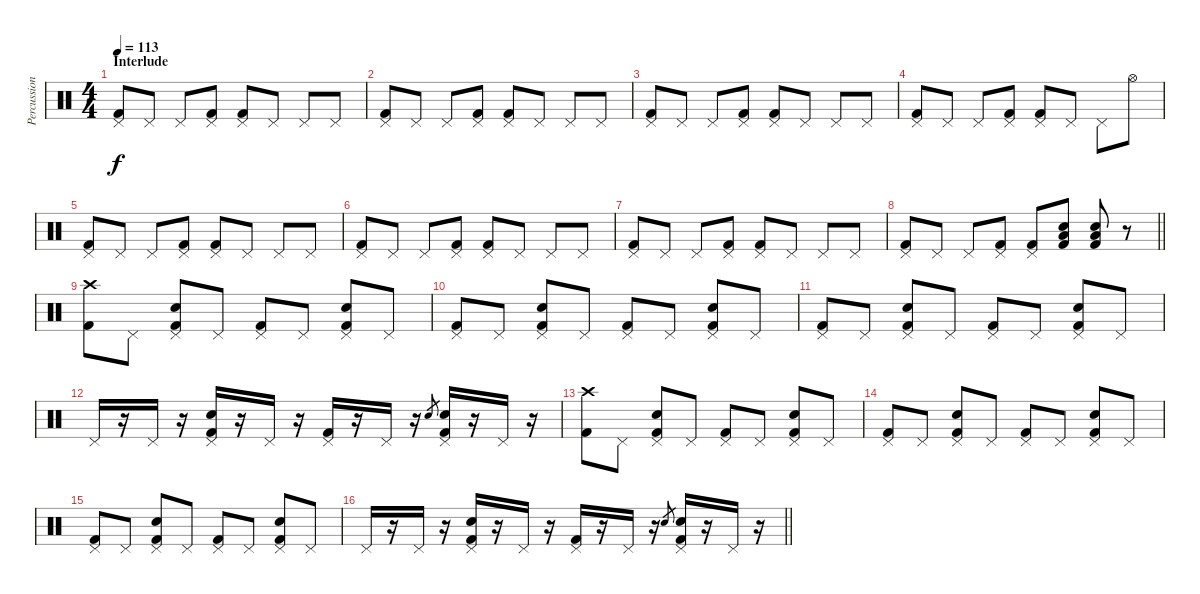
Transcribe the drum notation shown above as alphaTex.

\track ("Percussions" "Percussion") {instrument percussion}
\staff {score}
\articulation defaults
\ts (4 4)
\section ("" "Interlude")
\tempo 113
\clef neutral
\ks c
("Pedal Hi-Hat (hit)" "Kick (hit) 2").8{dy f} "Pedal Hi-Hat (hit)".8 "Pedal Hi-Hat (hit)".8 ("Pedal Hi-Hat (hit)" "Kick (hit) 2").8 ("Pedal Hi-Hat (hit)" "Kick (hit) 2").8 "Pedal Hi-Hat (hit)".8 "Pedal Hi-Hat (hit)".8 "Pedal Hi-Hat (hit)".8 |
("Pedal Hi-Hat (hit)" "Kick (hit) 2").8 "Pedal Hi-Hat (hit)".8 "Pedal Hi-Hat (hit)".8 ("Pedal Hi-Hat (hit)" "Kick (hit) 2").8 ("Pedal Hi-Hat (hit)" "Kick (hit) 2").8 "Pedal Hi-Hat (hit)".8 "Pedal Hi-Hat (hit)".8 "Pedal Hi-Hat (hit)".8 |
("Pedal Hi-Hat (hit)" "Kick (hit) 2").8 "Pedal Hi-Hat (hit)".8 "Pedal Hi-Hat (hit)".8 ("Pedal Hi-Hat (hit)" "Kick (hit) 2").8 ("Pedal Hi-Hat (hit)" "Kick (hit) 2").8 "Pedal Hi-Hat (hit)".8 "Pedal Hi-Hat (hit)".8 "Pedal Hi-Hat (hit)".8 |
("Pedal Hi-Hat (hit)" "Kick (hit) 2").8 "Pedal Hi-Hat (hit)".8 "Pedal Hi-Hat (hit)".8 ("Pedal Hi-Hat (hit)" "Kick (hit) 2").8 ("Pedal Hi-Hat (hit)" "Kick (hit) 2").8 "Pedal Hi-Hat (hit)".8 "Pedal Hi-Hat (hit)".8 "Hi-Hat (open)".8 |
("Pedal Hi-Hat (hit)" "Kick (hit) 2").8 "Pedal Hi-Hat (hit)".8 "Pedal Hi-Hat (hit)".8 ("Pedal Hi-Hat (hit)" "Kick (hit) 2").8 ("Pedal Hi-Hat (hit)" "Kick (hit) 2").8 "Pedal Hi-Hat (hit)".8 "Pedal Hi-Hat (hit)".8 "Pedal Hi-Hat (hit)".8 |
("Pedal Hi-Hat (hit)" "Kick (hit) 2").8 "Pedal Hi-Hat (hit)".8 "Pedal Hi-Hat (hit)".8 ("Pedal Hi-Hat (hit)" "Kick (hit) 2").8 ("Pedal Hi-Hat (hit)" "Kick (hit) 2").8 "Pedal Hi-Hat (hit)".8 "Pedal Hi-Hat (hit)".8 "Pedal Hi-Hat (hit)".8 |
("Pedal Hi-Hat (hit)" "Kick (hit) 2").8 "Pedal Hi-Hat (hit)".8 "Pedal Hi-Hat (hit)".8 ("Pedal Hi-Hat (hit)" "Kick (hit) 2").8 ("Pedal Hi-Hat (hit)" "Kick (hit) 2").8 "Pedal Hi-Hat (hit)".8 "Pedal Hi-Hat (hit)".8 "Pedal Hi-Hat (hit)".8 |
\barLineRight lightlight
("Pedal Hi-Hat (hit)" "Kick (hit) 2").8 "Pedal Hi-Hat (hit)".8 "Pedal Hi-Hat (hit)".8 ("Pedal Hi-Hat (hit)" "Kick (hit) 2").8 ("Pedal Hi-Hat (hit)" "Kick (hit) 2").8 ("Low Floor Tom (hit)" "Electric Snare (hit)" "Kick (hit) 2").8 ("Low Floor Tom (hit)" "Electric Snare (hit)" "Kick (hit) 2").8 r.8 |
("Crash high (hit)" "Kick (hit) 2").8 "Pedal Hi-Hat (hit)".8 ("Pedal Hi-Hat (hit)" "Electric Snare (hit)" "Kick (hit) 2").8 "Pedal Hi-Hat (hit)".8 ("Pedal Hi-Hat (hit)" "Kick (hit) 2").8 "Pedal Hi-Hat (hit)".8 ("Pedal Hi-Hat (hit)" "Electric Snare (hit)" "Kick (hit) 2").8 "Pedal Hi-Hat (hit)".8 |
("Pedal Hi-Hat (hit)" "Kick (hit) 2").8 "Pedal Hi-Hat (hit)".8 ("Pedal Hi-Hat (hit)" "Electric Snare (hit)" "Kick (hit) 2").8 "Pedal Hi-Hat (hit)".8 ("Pedal Hi-Hat (hit)" "Kick (hit) 2").8 "Pedal Hi-Hat (hit)".8 ("Pedal Hi-Hat (hit)" "Electric Snare (hit)" "Kick (hit) 2").8 "Pedal Hi-Hat (hit)".8 |
("Pedal Hi-Hat (hit)" "Kick (hit) 2").8 "Pedal Hi-Hat (hit)".8 ("Pedal Hi-Hat (hit)" "Electric Snare (hit)" "Kick (hit) 2").8 "Pedal Hi-Hat (hit)".8 ("Pedal Hi-Hat (hit)" "Kick (hit) 2").8 "Pedal Hi-Hat (hit)".8 ("Pedal Hi-Hat (hit)" "Electric Snare (hit)" "Kick (hit) 2").8 "Pedal Hi-Hat (hit)".8 |
"Pedal Hi-Hat (hit)".16 r.16 "Pedal Hi-Hat (hit)".16 r.16 ("Pedal Hi-Hat (hit)" "Electric Snare (hit)" "Kick (hit) 2").16 r.16 "Pedal Hi-Hat (hit)".16 r.16 ("Pedal Hi-Hat (hit)" "Kick (hit) 2").16 r.16 "Pedal Hi-Hat (hit)".16 r.16 "Electric Snare (hit)".8{gr} ("Pedal Hi-Hat (hit)" "Electric Snare (hit)" "Kick (hit) 2").16 r.16 "Pedal Hi-Hat (hit)".16 r.16 |
("Crash high (hit)" "Kick (hit) 2").8 "Pedal Hi-Hat (hit)".8 ("Pedal Hi-Hat (hit)" "Electric Snare (hit)" "Kick (hit) 2").8 "Pedal Hi-Hat (hit)".8 ("Pedal Hi-Hat (hit)" "Kick (hit) 2").8 "Pedal Hi-Hat (hit)".8 ("Pedal Hi-Hat (hit)" "Electric Snare (hit)" "Kick (hit) 2").8 "Pedal Hi-Hat (hit)".8 |
("Pedal Hi-Hat (hit)" "Kick (hit) 2").8 "Pedal Hi-Hat (hit)".8 ("Pedal Hi-Hat (hit)" "Electric Snare (hit)" "Kick (hit) 2").8 "Pedal Hi-Hat (hit)".8 ("Pedal Hi-Hat (hit)" "Kick (hit) 2").8 "Pedal Hi-Hat (hit)".8 ("Pedal Hi-Hat (hit)" "Electric Snare (hit)" "Kick (hit) 2").8 "Pedal Hi-Hat (hit)".8 |
("Pedal Hi-Hat (hit)" "Kick (hit) 2").8 "Pedal Hi-Hat (hit)".8 ("Pedal Hi-Hat (hit)" "Electric Snare (hit)" "Kick (hit) 2").8 "Pedal Hi-Hat (hit)".8 ("Pedal Hi-Hat (hit)" "Kick (hit) 2").8 "Pedal Hi-Hat (hit)".8 ("Pedal Hi-Hat (hit)" "Electric Snare (hit)" "Kick (hit) 2").8 "Pedal Hi-Hat (hit)".8 |
\barLineRight lightlight "Pedal Hi-Hat (hit)".16
r.16 "Pedal Hi-Hat (hit)".16 r.16 ("Pedal Hi-Hat (hit)" "Electric Snare (hit)" "Kick (hit) 2").16 r.16 "Pedal Hi-Hat (hit)".16 r.16 ("Pedal Hi-Hat (hit)" "Kick (hit) 2").16 r.16 "Pedal Hi-Hat (hit)".16 r.16 "Electric Snare (hit)".8{gr} ("Pedal Hi-Hat (hit)" "Electric Snare (hit)" "Kick (hit) 2").16 r.16 "Pedal Hi-Hat (hit)".16 r.16
